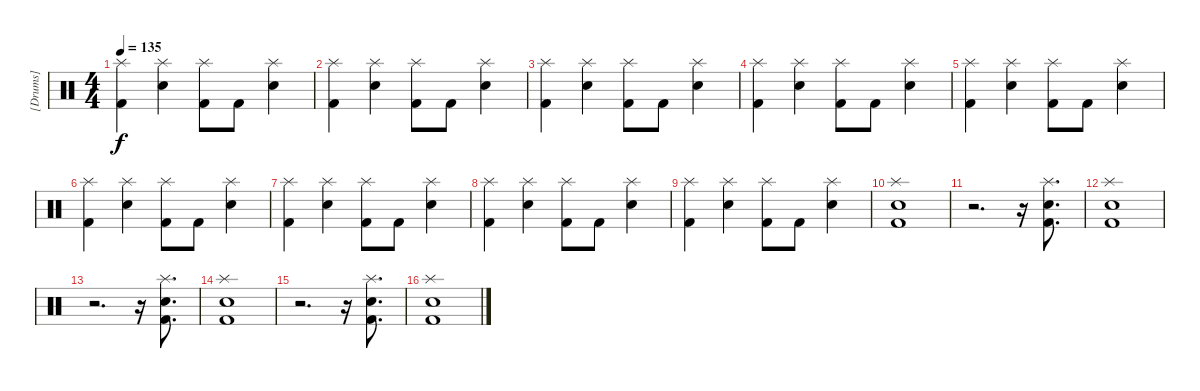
\track ("[Drums]" "[Drums]") {instrument percussion}
\staff {score}
\articulation defaults
\ts (4 4)
\tempo 135
\clef neutral
\ks c
("Splash (hit)" "Kick (hit) 2").4{dy f} ("Splash (hit)" "Snare (hit) 2").4 ("Splash (hit)" "Kick (hit) 2").8 "Kick (hit) 2".8 ("Splash (hit)" "Snare (hit) 2").4 |
("Splash (hit)" "Kick (hit) 2").4 ("Splash (hit)" "Snare (hit) 2").4 ("Splash (hit)" "Kick (hit) 2").8 "Kick (hit) 2".8 ("Splash (hit)" "Snare (hit) 2").4 |
("Splash (hit)" "Kick (hit) 2").4 ("Splash (hit)" "Snare (hit) 2").4 ("Splash (hit)" "Kick (hit) 2").8 "Kick (hit) 2".8 ("Splash (hit)" "Snare (hit) 2").4 |
("Splash (hit)" "Kick (hit) 2").4 ("Splash (hit)" "Snare (hit) 2").4 ("Splash (hit)" "Kick (hit) 2").8 "Kick (hit) 2".8 ("Splash (hit)" "Snare (hit) 2").4 |
("Splash (hit)" "Kick (hit) 2").4 ("Splash (hit)" "Snare (hit) 2").4 ("Splash (hit)" "Kick (hit) 2").8 "Kick (hit) 2".8 ("Splash (hit)" "Snare (hit) 2").4 |
("Splash (hit)" "Kick (hit) 2").4 ("Splash (hit)" "Snare (hit) 2").4 ("Splash (hit)" "Kick (hit) 2").8 "Kick (hit) 2".8 ("Splash (hit)" "Snare (hit) 2").4 |
("Splash (hit)" "Kick (hit) 2").4 ("Splash (hit)" "Snare (hit) 2").4 ("Splash (hit)" "Kick (hit) 2").8 "Kick (hit) 2".8 ("Splash (hit)" "Snare (hit) 2").4 |
("Splash (hit)" "Kick (hit) 2").4 ("Splash (hit)" "Snare (hit) 2").4 ("Splash (hit)" "Kick (hit) 2").8 "Kick (hit) 2".8 ("Splash (hit)" "Snare (hit) 2").4 |
("Splash (hit)" "Kick (hit) 2").4 ("Splash (hit)" "Snare (hit) 2").4 ("Splash (hit)" "Kick (hit) 2").8 "Kick (hit) 2".8 ("Splash (hit)" "Snare (hit) 2").4 |
("Splash (hit)" "Snare (hit) 2" "Kick (hit) 2").1 |
r.2{d} r.16 ("Splash (hit)" "Snare (hit) 2" "Kick (hit) 2").8{d} |
("Splash (hit)" "Snare (hit) 2" "Kick (hit) 2").1 |
r.2{d} r.16 ("Splash (hit)" "Snare (hit) 2" "Kick (hit) 2").8{d} |
("Splash (hit)" "Snare (hit) 2" "Kick (hit) 2").1 |
r.2{d} r.16 ("Splash (hit)" "Snare (hit) 2" "Kick (hit) 2").8{d} |
("Splash (hit)" "Snare (hit) 2" "Kick (hit) 2").1
